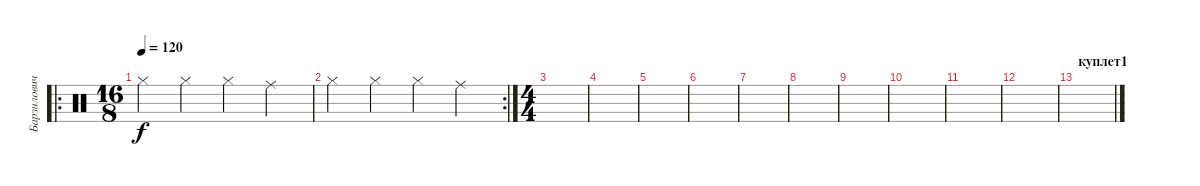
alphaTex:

\track ("Барзилович" "Барзилович") {instrument percussion}
\staff {score}
\articulation defaults
\ro
\ts (16 8)
\tempo 120
\clef neutral
\ks c "Hi-Hat (closed)".2{dy f} "Hi-Hat (closed)".2 "Hi-Hat (closed)".2 "Ride (middle)".2
|
\rc 2 "Hi-Hat (closed)".2 "Hi-Hat (closed)".2 "Hi-Hat (closed)".2 "Ride (middle)".2
|
\ts (4 4)
|
|
|
|
|
|
|
|
|
|
\section ("" "куплет1")
